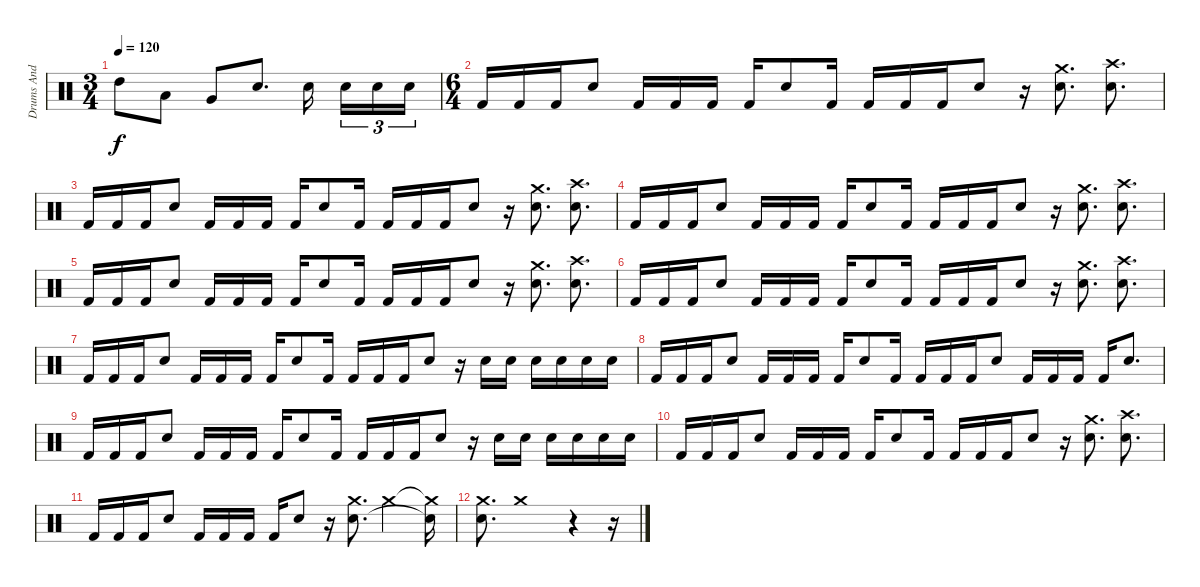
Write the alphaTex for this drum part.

\track ("Drums And Percussion" "Drums And ") {instrument percussion}
\staff {score}
\articulation defaults
\ts (3 4)
\tempo 120
\clef neutral
\ks c "High Tom (hit)".8{dy f} "Low Tom (hit)".8 "Very Low Tom (hit)".8 "Snare (hit) 2".8{d} "Snare (hit) 2".16{beam splitsecondary} "Snare (hit) 2".16{tu (3 2)} "Snare (hit) 2".16{tu (3 2)} "Snare (hit) 2".16{tu (3 2)}
|
\ts (6 4)
"Kick (hit) 2".16 "Kick (hit) 2".16 "Kick (hit) 2".16 "Snare (hit) 2".8 "Kick (hit) 2".16 "Kick (hit) 2".16 "Kick (hit) 2".16 "Kick (hit) 2".16 "Snare (hit) 2".8 "Kick (hit) 2".16 "Kick (hit) 2".16 "Kick (hit) 2".16 "Kick (hit) 2".16 "Snare (hit) 2".8 r.16 ("Crash medium (hit)" "Snare (hit) 2").8{d} ("Crash high (hit)" "Snare (hit) 2").8{d} |
"Kick (hit) 2".16 "Kick (hit) 2".16 "Kick (hit) 2".16 "Snare (hit) 2".8 "Kick (hit) 2".16 "Kick (hit) 2".16 "Kick (hit) 2".16 "Kick (hit) 2".16 "Snare (hit) 2".8 "Kick (hit) 2".16 "Kick (hit) 2".16 "Kick (hit) 2".16 "Kick (hit) 2".16 "Snare (hit) 2".8 r.16 ("Crash medium (hit)" "Snare (hit) 2").8{d} ("Crash high (hit)" "Snare (hit) 2").8{d} |
"Kick (hit) 2".16 "Kick (hit) 2".16 "Kick (hit) 2".16 "Snare (hit) 2".8 "Kick (hit) 2".16 "Kick (hit) 2".16 "Kick (hit) 2".16 "Kick (hit) 2".16 "Snare (hit) 2".8 "Kick (hit) 2".16 "Kick (hit) 2".16 "Kick (hit) 2".16 "Kick (hit) 2".16 "Snare (hit) 2".8 r.16 ("Crash medium (hit)" "Snare (hit) 2").8{d} ("Crash high (hit)" "Snare (hit) 2").8{d} |
"Kick (hit) 2".16 "Kick (hit) 2".16 "Kick (hit) 2".16 "Snare (hit) 2".8 "Kick (hit) 2".16 "Kick (hit) 2".16 "Kick (hit) 2".16 "Kick (hit) 2".16 "Snare (hit) 2".8 "Kick (hit) 2".16 "Kick (hit) 2".16 "Kick (hit) 2".16 "Kick (hit) 2".16 "Snare (hit) 2".8 r.16 ("Crash medium (hit)" "Snare (hit) 2").8{d} ("Crash high (hit)" "Snare (hit) 2").8{d} |
"Kick (hit) 2".16 "Kick (hit) 2".16 "Kick (hit) 2".16 "Snare (hit) 2".8 "Kick (hit) 2".16 "Kick (hit) 2".16 "Kick (hit) 2".16 "Kick (hit) 2".16 "Snare (hit) 2".8 "Kick (hit) 2".16 "Kick (hit) 2".16 "Kick (hit) 2".16 "Kick (hit) 2".16 "Snare (hit) 2".8 r.16 ("Crash medium (hit)" "Snare (hit) 2").8{d} ("Crash high (hit)" "Snare (hit) 2").8{d} |
"Kick (hit) 2".16 "Kick (hit) 2".16 "Kick (hit) 2".16 "Snare (hit) 2".8 "Kick (hit) 2".16 "Kick (hit) 2".16 "Kick (hit) 2".16 "Kick (hit) 2".16 "Snare (hit) 2".8 "Kick (hit) 2".16 "Kick (hit) 2".16 "Kick (hit) 2".16 "Kick (hit) 2".16 "Snare (hit) 2".8 r.16 "Snare (hit) 2".16 "Snare (hit) 2".16 "Snare (hit) 2".16 "Snare (hit) 2".16 "Snare (hit) 2".16 "Snare (hit) 2".16 |
"Kick (hit) 2".16 "Kick (hit) 2".16 "Kick (hit) 2".16 "Snare (hit) 2".8 "Kick (hit) 2".16 "Kick (hit) 2".16 "Kick (hit) 2".16 "Kick (hit) 2".16 "Snare (hit) 2".8 "Kick (hit) 2".16 "Kick (hit) 2".16 "Kick (hit) 2".16 "Kick (hit) 2".16 "Snare (hit) 2".8 "Kick (hit) 2".16 "Kick (hit) 2".16 "Kick (hit) 2".16 "Kick (hit) 2".16 "Snare (hit) 2".8{d} |
"Kick (hit) 2".16 "Kick (hit) 2".16 "Kick (hit) 2".16 "Snare (hit) 2".8 "Kick (hit) 2".16 "Kick (hit) 2".16 "Kick (hit) 2".16 "Kick (hit) 2".16 "Snare (hit) 2".8 "Kick (hit) 2".16 "Kick (hit) 2".16 "Kick (hit) 2".16 "Kick (hit) 2".16 "Snare (hit) 2".8 r.16 "Snare (hit) 2".16 "Snare (hit) 2".16 "Snare (hit) 2".16 "Snare (hit) 2".16 "Snare (hit) 2".16 "Snare (hit) 2".16 |
"Kick (hit) 2".16 "Kick (hit) 2".16 "Kick (hit) 2".16 "Snare (hit) 2".8 "Kick (hit) 2".16 "Kick (hit) 2".16 "Kick (hit) 2".16 "Kick (hit) 2".16 "Snare (hit) 2".8 "Kick (hit) 2".16 "Kick (hit) 2".16 "Kick (hit) 2".16 "Kick (hit) 2".16 "Snare (hit) 2".8 r.16 ("Crash medium (hit)" "Snare (hit) 2").8{d} ("Crash high (hit)" "Snare (hit) 2").8{d} |
"Kick (hit) 2".16 "Kick (hit) 2".16 "Kick (hit) 2".16 "Snare (hit) 2".8 "Kick (hit) 2".16 "Kick (hit) 2".16 "Kick (hit) 2".16 "Kick (hit) 2".16 "Snare (hit) 2".8 r.16 ("Crash medium (hit)" "Snare (hit) 2").8{d} "Crash medium (hit)".2 ("Crash medium (hit)"{t} "Snare (hit) 2"{t}).16 |
("Crash medium (hit)" "Snare (hit) 2").8{d} "Crash medium (hit)".1 r.4 r.16
